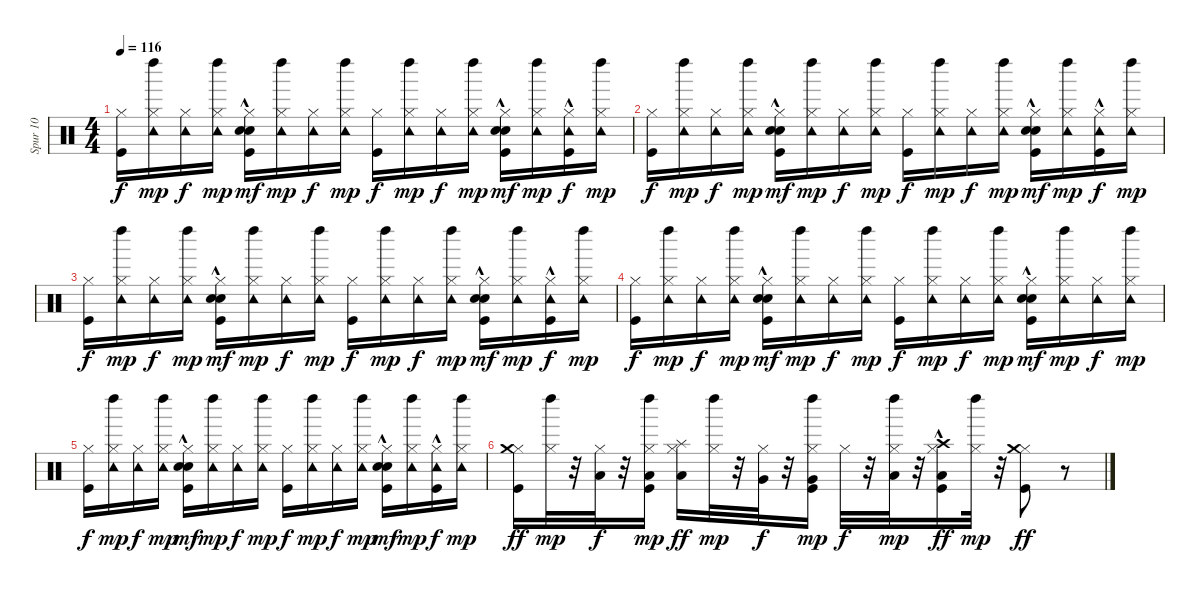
\track ("Spur 10" "Spur 10") {instrument percussion}
\staff {score}
\articulation defaults
\ts (4 4)
\tempo 116
\clef neutral
\ks c
("Kick (hit)" "Hi-Hat (closed)").16{dy f} ("Left Maraca (hit)" "Hi-Hat (closed)" "Tambourine (hit)").16{dy mp} ("Hi-Hat (closed)" "Tambourine (hit)").16{dy f} ("Left Maraca (hit)" "Hi-Hat (closed)" "Tambourine (hit)").16{dy mp} ("Kick (hit)"{hac} "Snare (hit) 2"{hac} "Hi-Hat (closed)" "Hand Clap (hit)"{hac}).16{dy mf} ("Left Maraca (hit)" "Hi-Hat (closed)" "Tambourine (hit)").16{dy mp} ("Hi-Hat (closed)" "Tambourine (hit)").16{dy f} ("Left Maraca (hit)" "Hi-Hat (closed)" "Tambourine (hit)").16{dy mp} ("Kick (hit)" "Hi-Hat (closed)").16{dy f} ("Left Maraca (hit)" "Hi-Hat (closed)" "Tambourine (hit)").16{dy mp} ("Hi-Hat (closed)" "Tambourine (hit)").16{dy f} ("Left Maraca (hit)" "Hi-Hat (closed)" "Tambourine (hit)").16{dy mp} ("Kick (hit)"{hac} "Snare (hit) 2"{hac} "Hi-Hat (closed)" "Hand Clap (hit)"{hac}).16{dy mf} ("Left Maraca (hit)" "Hi-Hat (closed)" "Tambourine (hit)").16{dy mp} ("Kick (hit)"{hac} "Hi-Hat (closed)" "Tambourine (hit)").16{dy f} ("Left Maraca (hit)" "Hi-Hat (closed)" "Tambourine (hit)").16{dy mp} |
("Kick (hit)" "Hi-Hat (closed)").16{dy f} ("Left Maraca (hit)" "Hi-Hat (closed)" "Tambourine (hit)").16{dy mp} ("Hi-Hat (closed)" "Tambourine (hit)").16{dy f} ("Left Maraca (hit)" "Hi-Hat (closed)" "Tambourine (hit)").16{dy mp} ("Kick (hit)"{hac} "Snare (hit) 2"{hac} "Hi-Hat (closed)" "Hand Clap (hit)"{hac}).16{dy mf} ("Left Maraca (hit)" "Hi-Hat (closed)" "Tambourine (hit)").16{dy mp} ("Hi-Hat (closed)" "Tambourine (hit)").16{dy f} ("Left Maraca (hit)" "Hi-Hat (closed)" "Tambourine (hit)").16{dy mp} ("Kick (hit)" "Hi-Hat (closed)").16{dy f} ("Left Maraca (hit)" "Hi-Hat (closed)" "Tambourine (hit)").16{dy mp} ("Hi-Hat (closed)" "Tambourine (hit)").16{dy f} ("Left Maraca (hit)" "Hi-Hat (closed)" "Tambourine (hit)").16{dy mp} ("Kick (hit)"{hac} "Snare (hit) 2"{hac} "Hi-Hat (closed)" "Hand Clap (hit)"{hac}).16{dy mf} ("Left Maraca (hit)" "Hi-Hat (closed)" "Tambourine (hit)").16{dy mp} ("Kick (hit)"{hac} "Hi-Hat (closed)" "Tambourine (hit)").16{dy f} ("Left Maraca (hit)" "Hi-Hat (closed)" "Tambourine (hit)").16{dy mp} |
("Kick (hit)" "Hi-Hat (closed)").16{dy f} ("Left Maraca (hit)" "Hi-Hat (closed)" "Tambourine (hit)").16{dy mp} ("Hi-Hat (closed)" "Tambourine (hit)").16{dy f} ("Left Maraca (hit)" "Hi-Hat (closed)" "Tambourine (hit)").16{dy mp} ("Kick (hit)"{hac} "Snare (hit) 2"{hac} "Hi-Hat (closed)" "Hand Clap (hit)"{hac}).16{dy mf} ("Left Maraca (hit)" "Hi-Hat (closed)" "Tambourine (hit)").16{dy mp} ("Hi-Hat (closed)" "Tambourine (hit)").16{dy f} ("Left Maraca (hit)" "Hi-Hat (closed)" "Tambourine (hit)").16{dy mp} ("Kick (hit)" "Hi-Hat (closed)").16{dy f} ("Left Maraca (hit)" "Hi-Hat (closed)" "Tambourine (hit)").16{dy mp} ("Hi-Hat (closed)" "Tambourine (hit)").16{dy f} ("Left Maraca (hit)" "Hi-Hat (closed)" "Tambourine (hit)").16{dy mp} ("Kick (hit)"{hac} "Snare (hit) 2"{hac} "Hi-Hat (closed)" "Hand Clap (hit)"{hac}).16{dy mf} ("Left Maraca (hit)" "Hi-Hat (closed)" "Tambourine (hit)").16{dy mp} ("Kick (hit)"{hac} "Hi-Hat (closed)" "Tambourine (hit)").16{dy f} ("Left Maraca (hit)" "Hi-Hat (closed)" "Tambourine (hit)").16{dy mp} |
("Kick (hit)" "Hi-Hat (closed)").16{dy f} ("Left Maraca (hit)" "Hi-Hat (closed)" "Tambourine (hit)").16{dy mp} ("Hi-Hat (closed)" "Tambourine (hit)").16{dy f} ("Left Maraca (hit)" "Hi-Hat (closed)" "Tambourine (hit)").16{dy mp} ("Kick (hit)"{hac} "Snare (hit) 2"{hac} "Hi-Hat (closed)" "Hand Clap (hit)"{hac}).16{dy mf} ("Left Maraca (hit)" "Hi-Hat (closed)" "Tambourine (hit)").16{dy mp} ("Hi-Hat (closed)" "Tambourine (hit)").16{dy f} ("Left Maraca (hit)" "Hi-Hat (closed)" "Tambourine (hit)").16{dy mp} ("Kick (hit)" "Hi-Hat (closed)").16{dy f} ("Left Maraca (hit)" "Hi-Hat (closed)" "Tambourine (hit)").16{dy mp} ("Hi-Hat (closed)" "Tambourine (hit)").16{dy f} ("Left Maraca (hit)" "Hi-Hat (closed)" "Tambourine (hit)").16{dy mp} ("Kick (hit)"{hac} "Snare (hit) 2"{hac} "Hi-Hat (closed)" "Hand Clap (hit)"{hac}).16{dy mf} ("Left Maraca (hit)" "Hi-Hat (closed)" "Tambourine (hit)").16{dy mp} ("Hi-Hat (closed)" "Tambourine (hit)").16{dy f} ("Left Maraca (hit)" "Hi-Hat (closed)" "Tambourine (hit)").16{dy mp} |
("Kick (hit)" "Hi-Hat (closed)").16{dy f} ("Left Maraca (hit)" "Hi-Hat (closed)" "Tambourine (hit)").16{dy mp} ("Hi-Hat (closed)" "Tambourine (hit)").16{dy f} ("Left Maraca (hit)" "Hi-Hat (closed)" "Tambourine (hit)").16{dy mp} ("Kick (hit)"{hac} "Snare (hit) 2"{hac} "Hi-Hat (closed)" "Hand Clap (hit)"{hac}).16{dy mf} ("Left Maraca (hit)" "Hi-Hat (closed)" "Tambourine (hit)").16{dy mp} ("Hi-Hat (closed)" "Tambourine (hit)").16{dy f} ("Left Maraca (hit)" "Hi-Hat (closed)" "Tambourine (hit)").16{dy mp} ("Kick (hit)" "Hi-Hat (closed)").16{dy f} ("Left Maraca (hit)" "Hi-Hat (closed)" "Tambourine (hit)").16{dy mp} ("Hi-Hat (closed)" "Tambourine (hit)").16{dy f} ("Left Maraca (hit)" "Hi-Hat (closed)" "Tambourine (hit)").16{dy mp} ("Kick (hit)"{hac} "Snare (hit) 2"{hac} "Hi-Hat (closed)" "Hand Clap (hit)"{hac}).16{dy mf} ("Left Maraca (hit)" "Hi-Hat (closed)" "Tambourine (hit)").16{dy mp} ("Kick (hit)"{hac} "Hi-Hat (closed)" "Tambourine (hit)").16{dy f} ("Left Maraca (hit)" "Hi-Hat (closed)" "Tambourine (hit)").16{dy mp} |
("Kick (hit)" "Hi-Hat (closed)" "Crash medium (hit)").16{dy ff} ("Left Maraca (hit)" "Hi-Hat (closed)").32{dy mp} r.32 ("Low Tom (hit)" "Hi-Hat (closed)").32{dy f} r.32 ("Kick (hit)" "Low Tom (hit)" "Left Maraca (hit)" "Hi-Hat (closed)").16{dy mp} ("Low Tom (hit)" "Hi-Hat (closed)" "Splash (hit)").16{dy ff} ("Left Maraca (hit)" "Hi-Hat (closed)").32{dy mp} r.32 ("Very Low Tom (hit)" "Hi-Hat (closed)").32{dy f} r.32 ("Kick (hit)" "Very Low Tom (hit)" "Left Maraca (hit)" "Hi-Hat (closed)").16{dy mp} "Hi-Hat (closed)".32{dy f} r.32 ("Low Floor Tom (hit)" "Left Maraca (hit)" "Hi-Hat (closed)").32{dy mp} r.32 ("Kick (hit)"{hac} "Low Floor Tom (hit)" "Hi-Hat (closed)" "Crash high (hit)").16{dy ff} ("Left Maraca (hit)" "Hi-Hat (closed)").32{dy mp} r.32 ("Kick (hit)" "Hi-Hat (closed)" "Crash medium (hit)").8{dy ff} r.8
